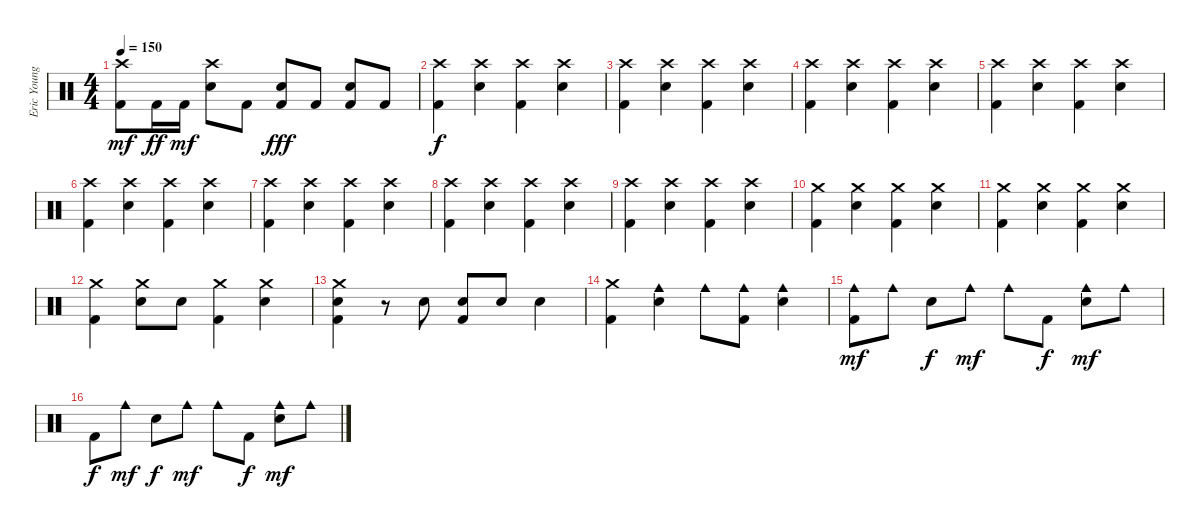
\track ("Eric Young" "Eric Young") {instrument percussion}
\staff {score}
\articulation defaults
\ts (4 4)
\tempo 150
\clef neutral
\ks c
("Crash high (hit)"{t} "Kick (hit) 2").8{dy mf} "Kick (hit) 2".16{dy ff} "Kick (hit) 2".16{dy mf} ("Crash high (hit)" "Electric Snare (hit)").8 "Kick (hit) 2".8 ("Electric Snare (hit)" "Kick (hit) 2").8{dy fff} "Kick (hit) 2".8 ("Electric Snare (hit)" "Kick (hit) 2").8 "Kick (hit) 2".8 |
("Crash high (hit)" "Kick (hit) 2").4{dy f} ("Crash high (hit)" "Electric Snare (hit)").4 ("Crash high (hit)" "Kick (hit) 2").4 ("Crash high (hit)" "Electric Snare (hit)").4 |
("Crash high (hit)" "Kick (hit) 2").4 ("Crash high (hit)" "Electric Snare (hit)").4 ("Crash high (hit)" "Kick (hit) 2").4 ("Crash high (hit)" "Electric Snare (hit)").4 |
("Crash high (hit)" "Kick (hit) 2").4 ("Crash high (hit)" "Electric Snare (hit)").4 ("Crash high (hit)" "Kick (hit) 2").4 ("Crash high (hit)" "Electric Snare (hit)").4 |
("Crash high (hit)" "Kick (hit) 2").4 ("Crash high (hit)" "Electric Snare (hit)").4 ("Crash high (hit)" "Kick (hit) 2").4 ("Crash high (hit)" "Electric Snare (hit)").4 |
("Crash high (hit)" "Kick (hit) 2").4 ("Crash high (hit)" "Electric Snare (hit)").4 ("Crash high (hit)" "Kick (hit) 2").4 ("Crash high (hit)" "Electric Snare (hit)").4 |
("Crash high (hit)" "Kick (hit) 2").4 ("Crash high (hit)" "Electric Snare (hit)").4 ("Crash high (hit)" "Kick (hit) 2").4 ("Crash high (hit)" "Electric Snare (hit)").4 |
("Crash high (hit)" "Kick (hit) 2").4 ("Crash high (hit)" "Electric Snare (hit)").4 ("Crash high (hit)" "Kick (hit) 2").4 ("Crash high (hit)" "Electric Snare (hit)").4 |
("Crash high (hit)" "Kick (hit) 2").4 ("Crash high (hit)" "Electric Snare (hit)").4 ("Crash high (hit)" "Kick (hit) 2").4 ("Crash high (hit)" "Electric Snare (hit)").4 |
("Crash medium (hit)" "Kick (hit) 2").4 ("Crash medium (hit)" "Electric Snare (hit)").4 ("Crash medium (hit)" "Kick (hit) 2").4 ("Crash medium (hit)" "Electric Snare (hit)").4 |
("Crash medium (hit)" "Kick (hit) 2").4 ("Crash medium (hit)" "Electric Snare (hit)").4 ("Crash medium (hit)" "Kick (hit) 2").4 ("Crash medium (hit)" "Electric Snare (hit)").4 |
("Crash medium (hit)" "Kick (hit) 2").4 ("Crash medium (hit)" "Electric Snare (hit)").8 "Electric Snare (hit)".8 ("Crash medium (hit)" "Kick (hit) 2").4 ("Crash medium (hit)" "Electric Snare (hit)").4 |
("Crash medium (hit)" "Electric Snare (hit)" "Kick (hit) 2").4 r.8 "Electric Snare (hit)".8 ("Electric Snare (hit)" "Kick (hit) 2").8 "Electric Snare (hit)".8 "Electric Snare (hit)".4 |
("Crash medium (hit)" "Kick (hit) 2").4 ("Cowbell medium (hit)" "Electric Snare (hit)").4 "Cowbell medium (hit)".8 ("Cowbell medium (hit)" "Kick (hit) 2").8 ("Cowbell medium (hit)" "Electric Snare (hit)").4 |
("Cowbell medium (hit)" "Kick (hit) 2").8{dy mf} "Cowbell medium (hit)".8 "Electric Snare (hit)".8{dy f} "Cowbell medium (hit)".8{dy mf} "Cowbell medium (hit)".8 "Kick (hit) 2".8{dy f} ("Cowbell medium (hit)" "Electric Snare (hit)").8{dy mf} "Cowbell medium (hit)".8 |
"Kick (hit) 2".8{dy f} "Cowbell medium (hit)".8{dy mf} "Electric Snare (hit)".8{dy f} "Cowbell medium (hit)".8{dy mf} "Cowbell medium (hit)".8 "Kick (hit) 2".8{dy f} ("Cowbell medium (hit)" "Electric Snare (hit)").8{dy mf} "Cowbell medium (hit)".8
